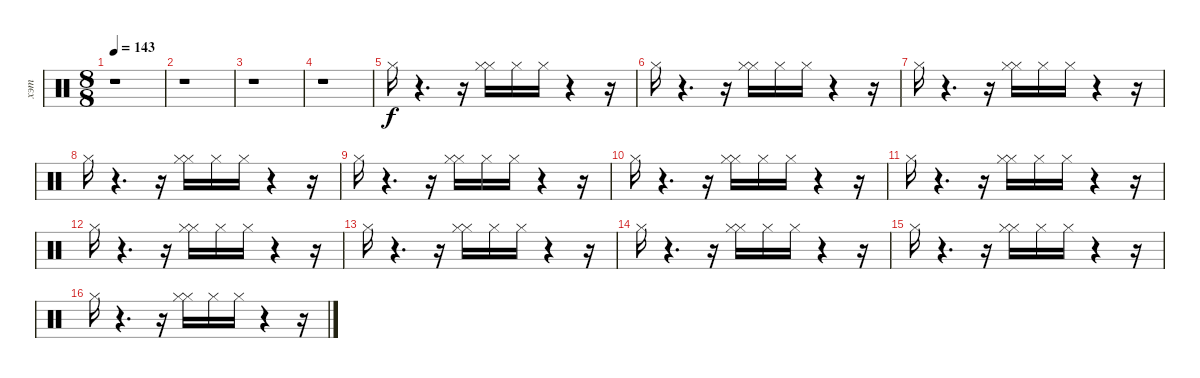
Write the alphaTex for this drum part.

\track ("хэт" "хэт") {instrument percussion}
\staff {score}
\articulation defaults
\ts (8 8)
\tempo 143
\clef neutral
\ks c
r.1{dy f} |
r.1 |
r.1 |
r.1 |
"Hi-Hat (closed)".16 r.4{d} r.16 ("Hi-Hat (closed)" "Hi-Hat (closed)").16 "Hi-Hat (closed)".16 "Hi-Hat (closed)".16 r.4 r.16 |
"Hi-Hat (closed)".16 r.4{d} r.16 ("Hi-Hat (closed)" "Hi-Hat (closed)").16 "Hi-Hat (closed)".16 "Hi-Hat (closed)".16 r.4 r.16 |
"Hi-Hat (closed)".16 r.4{d} r.16 ("Hi-Hat (closed)" "Hi-Hat (closed)").16 "Hi-Hat (closed)".16 "Hi-Hat (closed)".16 r.4 r.16 |
"Hi-Hat (closed)".16 r.4{d} r.16 ("Hi-Hat (closed)" "Hi-Hat (closed)").16 "Hi-Hat (closed)".16 "Hi-Hat (closed)".16 r.4 r.16 |
"Hi-Hat (closed)".16 r.4{d} r.16 ("Hi-Hat (closed)" "Hi-Hat (closed)").16 "Hi-Hat (closed)".16 "Hi-Hat (closed)".16 r.4 r.16 |
"Hi-Hat (closed)".16 r.4{d} r.16 ("Hi-Hat (closed)" "Hi-Hat (closed)").16 "Hi-Hat (closed)".16 "Hi-Hat (closed)".16 r.4 r.16 |
"Hi-Hat (closed)".16 r.4{d} r.16 ("Hi-Hat (closed)" "Hi-Hat (closed)").16 "Hi-Hat (closed)".16 "Hi-Hat (closed)".16 r.4 r.16 |
"Hi-Hat (closed)".16 r.4{d} r.16 ("Hi-Hat (closed)" "Hi-Hat (closed)").16 "Hi-Hat (closed)".16 "Hi-Hat (closed)".16 r.4 r.16 |
"Hi-Hat (closed)".16 r.4{d} r.16 ("Hi-Hat (closed)" "Hi-Hat (closed)").16 "Hi-Hat (closed)".16 "Hi-Hat (closed)".16 r.4 r.16 |
"Hi-Hat (closed)".16 r.4{d} r.16 ("Hi-Hat (closed)" "Hi-Hat (closed)").16 "Hi-Hat (closed)".16 "Hi-Hat (closed)".16 r.4 r.16 |
"Hi-Hat (closed)".16 r.4{d} r.16 ("Hi-Hat (closed)" "Hi-Hat (closed)").16 "Hi-Hat (closed)".16 "Hi-Hat (closed)".16 r.4 r.16 |
"Hi-Hat (closed)".16 r.4{d} r.16 ("Hi-Hat (closed)" "Hi-Hat (closed)").16 "Hi-Hat (closed)".16 "Hi-Hat (closed)".16 r.4 r.16
